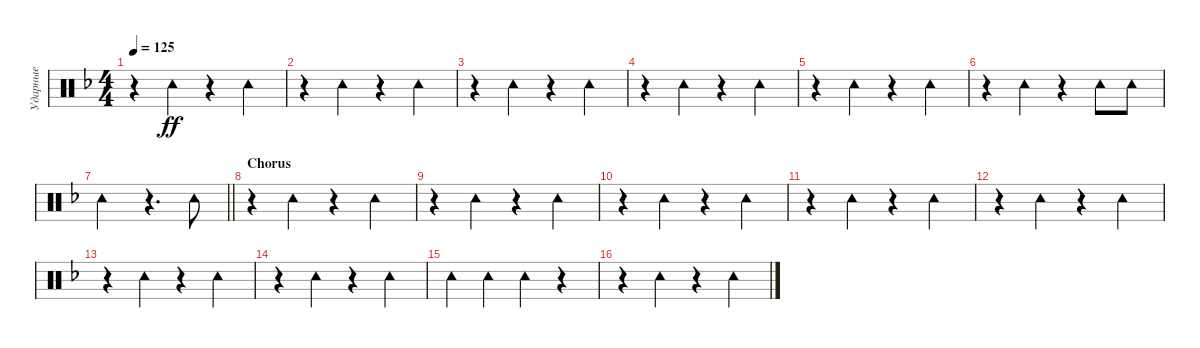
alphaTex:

\track ("Ударные" "Ударные") {instrument percussion}
\staff {score}
\articulation defaults
\ts (4 4)
\tempo 125
\clef neutral
\ks dminor
r.4{dy ff} "Tambourine (hit)".4 r.4 "Tambourine (hit)".4 |
r.4 "Tambourine (hit)".4 r.4 "Tambourine (hit)".4 |
r.4 "Tambourine (hit)".4 r.4 "Tambourine (hit)".4 |
r.4 "Tambourine (hit)".4 r.4 "Tambourine (hit)".4 |
r.4 "Tambourine (hit)".4 r.4 "Tambourine (hit)".4 |
r.4 "Tambourine (hit)".4 r.4 "Tambourine (hit)".8 "Tambourine (hit)".8 |
\barLineRight lightlight "Tambourine (hit)".2
r.4{d} "Tambourine (hit)".8 |
\section ("" "Chorus")
r.4 "Tambourine (hit)".4 r.4 "Tambourine (hit)".4 |
r.4 "Tambourine (hit)".4 r.4 "Tambourine (hit)".4 |
r.4 "Tambourine (hit)".4 r.4 "Tambourine (hit)".4 |
r.4 "Tambourine (hit)".4 r.4 "Tambourine (hit)".4 |
r.4 "Tambourine (hit)".4 r.4 "Tambourine (hit)".4 |
r.4 "Tambourine (hit)".4 r.4 "Tambourine (hit)".4 |
r.4 "Tambourine (hit)".4 r.4 "Tambourine (hit)".4 |
"Tambourine (hit)".4 "Tambourine (hit)".4 "Tambourine (hit)".4 r.4 |
r.4 "Tambourine (hit)".4 r.4 "Tambourine (hit)".4
